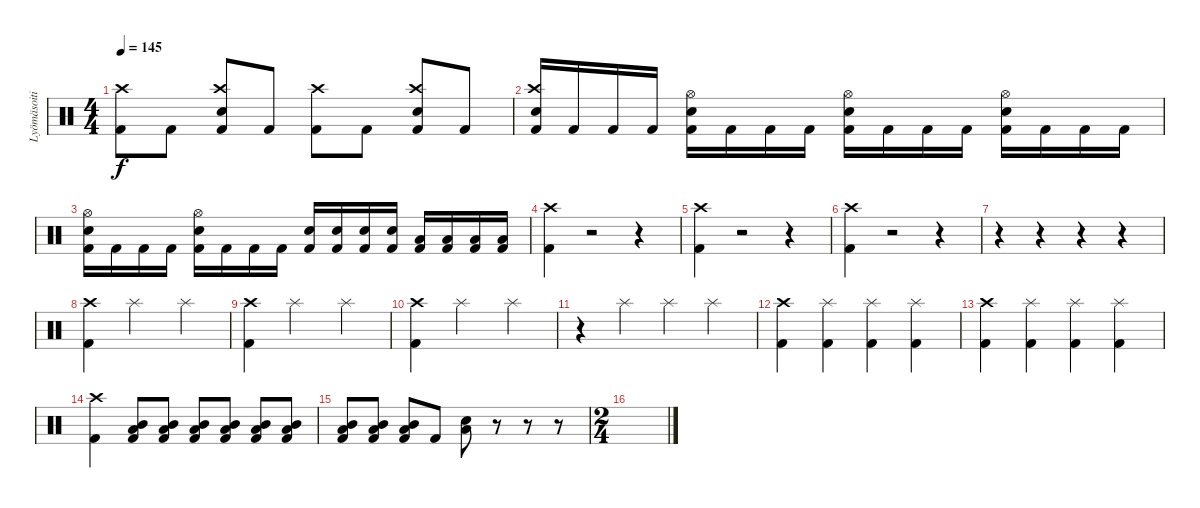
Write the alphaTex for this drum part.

\track ("Lyömäsoitin" "Lyömäsoiti") {instrument percussion}
\staff {score}
\articulation defaults
\ts (4 4)
\tempo 145
\clef neutral
\ks c
("Kick (hit) 2" "Crash high (hit)").8{dy f} "Kick (hit) 2".8 ("Kick (hit) 2" "Electric Snare (hit)" "Crash high (hit)").8 "Kick (hit) 2".8 ("Kick (hit) 2" "Crash high (hit)").8 "Kick (hit) 2".8 ("Kick (hit) 2" "Electric Snare (hit)" "Crash high (hit)").8 "Kick (hit) 2".8 |
("Kick (hit) 2" "Electric Snare (hit)" "Crash high (hit)").16 "Kick (hit) 2".16 "Kick (hit) 2".16 "Kick (hit) 2".16 ("Kick (hit) 2" "Electric Snare (hit)" "Hi-Hat (open)").16 "Kick (hit) 2".16 "Kick (hit) 2".16 "Kick (hit) 2".16 ("Kick (hit) 2" "Electric Snare (hit)" "Hi-Hat (open)").16 "Kick (hit) 2".16 "Kick (hit) 2".16 "Kick (hit) 2".16 ("Kick (hit) 2" "Electric Snare (hit)" "Hi-Hat (open)").16 "Kick (hit) 2".16 "Kick (hit) 2".16 "Kick (hit) 2".16 |
("Kick (hit) 2" "Electric Snare (hit)" "Hi-Hat (open)").16 "Kick (hit) 2".16 "Kick (hit) 2".16 "Kick (hit) 2".16 ("Kick (hit) 2" "Electric Snare (hit)" "Hi-Hat (open)").16 "Kick (hit) 2".16 "Kick (hit) 2".16 "Kick (hit) 2".16 ("Kick (hit) 2" "Electric Snare (hit)").16 ("Kick (hit) 2" "Electric Snare (hit)").16 ("Kick (hit) 2" "Electric Snare (hit)").16 ("Kick (hit) 2" "Electric Snare (hit)").16 ("Kick (hit) 2" "Low Tom (hit)").16 ("Kick (hit) 2" "Low Tom (hit)").16 ("Kick (hit) 2" "Low Tom (hit)").16 ("Kick (hit) 2" "Low Tom (hit)").16 |
("Kick (hit) 2" "Crash high (hit)").4 r.2 r.4 |
("Kick (hit) 2" "Crash high (hit)").4 r.2 r.4 |
("Kick (hit) 2" "Crash high (hit)").4 r.2 r.4 |
r.4 r.4 r.4 r.4 |
("Kick (hit) 2" "Crash high (hit)").4 "Splash (hit)".2 "Splash (hit)".4 |
("Kick (hit) 2" "Crash high (hit)").4 "Splash (hit)".2 "Splash (hit)".4 |
("Kick (hit) 2" "Crash high (hit)").4 "Splash (hit)".2 "Splash (hit)".4 |
r.4 "Splash (hit)".4 "Splash (hit)".4 "Splash (hit)".4 |
("Kick (hit) 2" "Crash high (hit)").4 ("Kick (hit) 2" "Splash (hit)").4 ("Kick (hit) 2" "Splash (hit)").4 ("Kick (hit) 2" "Splash (hit)").4 |
("Kick (hit) 2" "Crash high (hit)").4 ("Kick (hit) 2" "Splash (hit)").4 ("Kick (hit) 2" "Splash (hit)").4 ("Kick (hit) 2" "Splash (hit)").4 |
("Kick (hit) 2" "Crash high (hit)").4 ("Kick (hit) 2" "Mid Tom (hit)" "Low Tom (hit)").8 ("Kick (hit) 2" "Mid Tom (hit)" "Low Tom (hit)").8 ("Kick (hit) 2" "Mid Tom (hit)" "Low Tom (hit)").8 ("Kick (hit) 2" "Mid Tom (hit)" "Low Tom (hit)").8 ("Kick (hit) 2" "Mid Tom (hit)" "Low Tom (hit)").8 ("Kick (hit) 2" "Mid Tom (hit)" "Low Tom (hit)").8 |
("Kick (hit) 2" "Mid Tom (hit)" "Low Tom (hit)").8 ("Kick (hit) 2" "Mid Tom (hit)" "Low Tom (hit)").8 ("Kick (hit) 2" "Mid Tom (hit)" "Low Tom (hit)").8 "Kick (hit) 2".8 ("Electric Snare (hit)" "Low Floor Tom (hit)").8 r.8 r.8 r.8 |
\ts (2 4)
